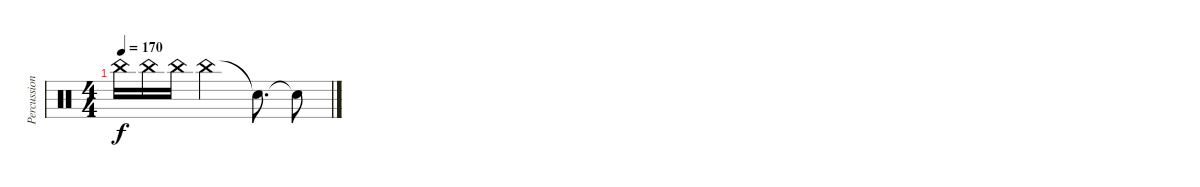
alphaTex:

\track ("Percussion" "Percussion") {instrument percussion}
\staff {score}
\articulation defaults
\ts (4 4)
\tempo 170
\clef neutral
\ks c "China (hit)".16{dy f} "China (hit)".16 "China (hit)".16 "China (hit)".2 "Snare (hit)"{t}.8{d} "Snare (hit)"{t}.8
